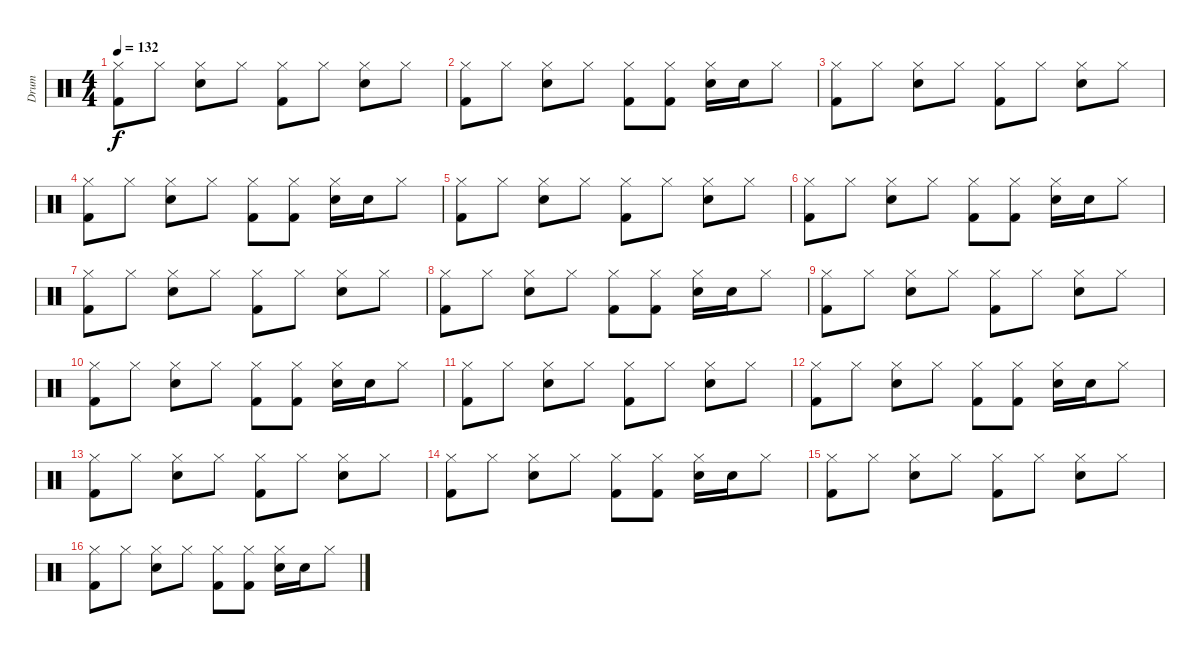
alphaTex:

\track ("Drum" "Drum") {instrument percussion}
\staff {score}
\articulation defaults
\ts (4 4)
\tempo 132
\tempo 128
\tempo 132
\clef neutral
\ks c
("Hi-Hat (closed)" "Kick (hit) 2").8{dy f} "Hi-Hat (closed)".8 ("Hi-Hat (closed)" "Electric Snare (hit)").8 "Hi-Hat (closed)".8 ("Hi-Hat (closed)" "Kick (hit) 2").8 "Hi-Hat (closed)".8 ("Hi-Hat (closed)" "Electric Snare (hit)").8 "Hi-Hat (closed)".8 |
("Hi-Hat (closed)" "Kick (hit) 2").8 "Hi-Hat (closed)".8 ("Hi-Hat (closed)" "Electric Snare (hit)").8 "Hi-Hat (closed)".8 ("Hi-Hat (closed)" "Kick (hit) 2").8 ("Hi-Hat (closed)" "Kick (hit) 2").8 ("Hi-Hat (closed)" "Electric Snare (hit)").16 "Electric Snare (hit)".16 "Hi-Hat (closed)".8 |
("Hi-Hat (closed)" "Kick (hit) 2").8 "Hi-Hat (closed)".8 ("Hi-Hat (closed)" "Electric Snare (hit)").8 "Hi-Hat (closed)".8 ("Hi-Hat (closed)" "Kick (hit) 2").8 "Hi-Hat (closed)".8 ("Hi-Hat (closed)" "Electric Snare (hit)").8 "Hi-Hat (closed)".8 |
("Hi-Hat (closed)" "Kick (hit) 2").8 "Hi-Hat (closed)".8 ("Hi-Hat (closed)" "Electric Snare (hit)").8 "Hi-Hat (closed)".8 ("Hi-Hat (closed)" "Kick (hit) 2").8 ("Hi-Hat (closed)" "Kick (hit) 2").8 ("Hi-Hat (closed)" "Electric Snare (hit)").16 "Electric Snare (hit)".16 "Hi-Hat (closed)".8 |
("Hi-Hat (closed)" "Kick (hit) 2").8 "Hi-Hat (closed)".8 ("Hi-Hat (closed)" "Electric Snare (hit)").8 "Hi-Hat (closed)".8 ("Hi-Hat (closed)" "Kick (hit) 2").8 "Hi-Hat (closed)".8 ("Hi-Hat (closed)" "Electric Snare (hit)").8 "Hi-Hat (closed)".8 |
("Hi-Hat (closed)" "Kick (hit) 2").8 "Hi-Hat (closed)".8 ("Hi-Hat (closed)" "Electric Snare (hit)").8 "Hi-Hat (closed)".8 ("Hi-Hat (closed)" "Kick (hit) 2").8 ("Hi-Hat (closed)" "Kick (hit) 2").8 ("Hi-Hat (closed)" "Electric Snare (hit)").16 "Electric Snare (hit)".16 "Hi-Hat (closed)".8 |
("Hi-Hat (closed)" "Kick (hit) 2").8 "Hi-Hat (closed)".8 ("Hi-Hat (closed)" "Electric Snare (hit)").8 "Hi-Hat (closed)".8 ("Hi-Hat (closed)" "Kick (hit) 2").8 "Hi-Hat (closed)".8 ("Hi-Hat (closed)" "Electric Snare (hit)").8 "Hi-Hat (closed)".8 |
("Hi-Hat (closed)" "Kick (hit) 2").8 "Hi-Hat (closed)".8 ("Hi-Hat (closed)" "Electric Snare (hit)").8 "Hi-Hat (closed)".8 ("Hi-Hat (closed)" "Kick (hit) 2").8 ("Hi-Hat (closed)" "Kick (hit) 2").8 ("Hi-Hat (closed)" "Electric Snare (hit)").16 "Electric Snare (hit)".16 "Hi-Hat (closed)".8 |
("Hi-Hat (closed)" "Kick (hit) 2").8 "Hi-Hat (closed)".8 ("Hi-Hat (closed)" "Electric Snare (hit)").8 "Hi-Hat (closed)".8 ("Hi-Hat (closed)" "Kick (hit) 2").8 "Hi-Hat (closed)".8 ("Hi-Hat (closed)" "Electric Snare (hit)").8 "Hi-Hat (closed)".8 |
("Hi-Hat (closed)" "Kick (hit) 2").8 "Hi-Hat (closed)".8 ("Hi-Hat (closed)" "Electric Snare (hit)").8 "Hi-Hat (closed)".8 ("Hi-Hat (closed)" "Kick (hit) 2").8 ("Hi-Hat (closed)" "Kick (hit) 2").8 ("Hi-Hat (closed)" "Electric Snare (hit)").16 "Electric Snare (hit)".16 "Hi-Hat (closed)".8 |
("Hi-Hat (closed)" "Kick (hit) 2").8 "Hi-Hat (closed)".8 ("Hi-Hat (closed)" "Electric Snare (hit)").8 "Hi-Hat (closed)".8 ("Hi-Hat (closed)" "Kick (hit) 2").8 "Hi-Hat (closed)".8 ("Hi-Hat (closed)" "Electric Snare (hit)").8 "Hi-Hat (closed)".8 |
("Hi-Hat (closed)" "Kick (hit) 2").8 "Hi-Hat (closed)".8 ("Hi-Hat (closed)" "Electric Snare (hit)").8 "Hi-Hat (closed)".8 ("Hi-Hat (closed)" "Kick (hit) 2").8 ("Hi-Hat (closed)" "Kick (hit) 2").8 ("Hi-Hat (closed)" "Electric Snare (hit)").16 "Electric Snare (hit)".16 "Hi-Hat (closed)".8 |
("Hi-Hat (closed)" "Kick (hit) 2").8 "Hi-Hat (closed)".8 ("Hi-Hat (closed)" "Electric Snare (hit)").8 "Hi-Hat (closed)".8 ("Hi-Hat (closed)" "Kick (hit) 2").8 "Hi-Hat (closed)".8 ("Hi-Hat (closed)" "Electric Snare (hit)").8 "Hi-Hat (closed)".8 |
("Hi-Hat (closed)" "Kick (hit) 2").8 "Hi-Hat (closed)".8 ("Hi-Hat (closed)" "Electric Snare (hit)").8 "Hi-Hat (closed)".8 ("Hi-Hat (closed)" "Kick (hit) 2").8 ("Hi-Hat (closed)" "Kick (hit) 2").8 ("Hi-Hat (closed)" "Electric Snare (hit)").16 "Electric Snare (hit)".16 "Hi-Hat (closed)".8 |
("Hi-Hat (closed)" "Kick (hit) 2").8 "Hi-Hat (closed)".8 ("Hi-Hat (closed)" "Electric Snare (hit)").8 "Hi-Hat (closed)".8 ("Hi-Hat (closed)" "Kick (hit) 2").8 "Hi-Hat (closed)".8 ("Hi-Hat (closed)" "Electric Snare (hit)").8 "Hi-Hat (closed)".8 |
("Hi-Hat (closed)" "Kick (hit) 2").8 "Hi-Hat (closed)".8 ("Hi-Hat (closed)" "Electric Snare (hit)").8 "Hi-Hat (closed)".8 ("Hi-Hat (closed)" "Kick (hit) 2").8 ("Hi-Hat (closed)" "Kick (hit) 2").8 ("Hi-Hat (closed)" "Electric Snare (hit)").16 "Electric Snare (hit)".16 "Hi-Hat (closed)".8
